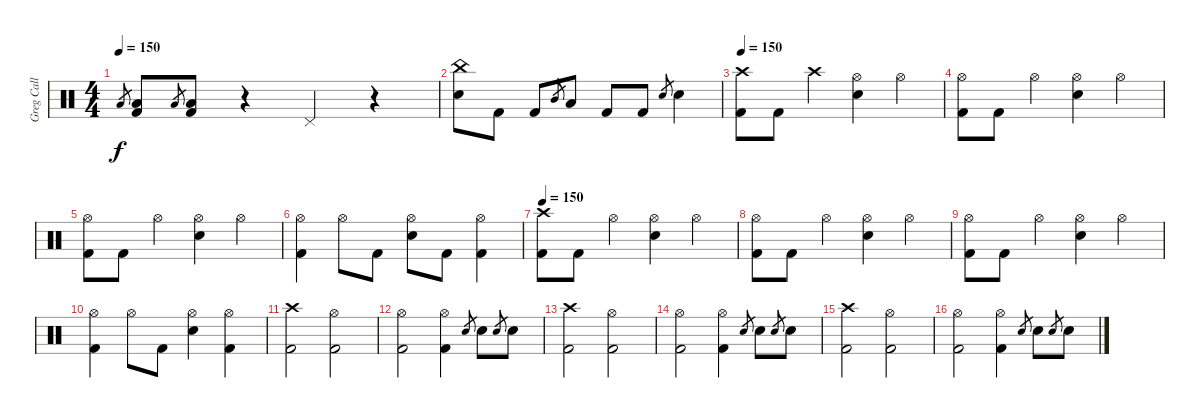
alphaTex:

\track ("Greg Call (Drums)" "Greg Call ") {instrument percussion}
\staff {score}
\articulation defaults
\ts (4 4)
\tempo 150
\clef neutral
\ks c "Low Floor Tom (hit)".8{gr dy f}
("Low Floor Tom (hit)" "Kick (hit) 2").8{volume 16} "Low Floor Tom (hit)".8{gr} ("Low Floor Tom (hit)" "Kick (hit) 2").8 r.4 "Pedal Hi-Hat (hit)".4 r.4 |
("China (hit)" "Snare (hit) 2").8 "Kick (hit) 2".8 "Kick (hit) 2".8 "Mid Tom (hit)".8{gr} "Low Tom (hit)".8 "Kick (hit) 2".8 "Kick (hit) 2".8 "Snare (hit) 2".8{gr} "Snare (hit) 2".4 |
\tempo 150
("Crash high (hit)" "Kick (hit) 2").8 "Kick (hit) 2".8 "Crash high (hit)".4 ("Hi-Hat (open)" "Snare (hit) 2").4 "Hi-Hat (open)".4 |
("Hi-Hat (open)" "Kick (hit) 2").8 "Kick (hit) 2".8 "Hi-Hat (open)".4 ("Hi-Hat (open)" "Snare (hit) 2").4 "Hi-Hat (open)".4 |
("Hi-Hat (open)" "Kick (hit) 2").8 "Kick (hit) 2".8 "Hi-Hat (open)".4 ("Hi-Hat (open)" "Snare (hit) 2").4 "Hi-Hat (open)".4 |
("Hi-Hat (open)" "Kick (hit) 2").4 "Hi-Hat (open)".8 "Kick (hit) 2".8 ("Hi-Hat (open)" "Snare (hit) 2").8 "Kick (hit) 2".8 ("Hi-Hat (open)" "Kick (hit) 2").4 |
\tempo 150
("Crash high (hit)" "Kick (hit) 2").8 "Kick (hit) 2".8 "Hi-Hat (open)".4 ("Hi-Hat (open)" "Snare (hit) 2").4 "Hi-Hat (open)".4 |
("Hi-Hat (open)" "Kick (hit) 2").8 "Kick (hit) 2".8 "Hi-Hat (open)".4 ("Hi-Hat (open)" "Snare (hit) 2").4 "Hi-Hat (open)".4 |
("Hi-Hat (open)" "Kick (hit) 2").8 "Kick (hit) 2".8 "Hi-Hat (open)".4 ("Hi-Hat (open)" "Snare (hit) 2").4 "Hi-Hat (open)".4 |
("Hi-Hat (open)" "Kick (hit) 2").4 "Hi-Hat (open)".8 "Kick (hit) 2".8 ("Hi-Hat (open)" "Snare (hit) 2").4 ("Hi-Hat (open)" "Kick (hit) 2").4 |
("Crash high (hit)" "Kick (hit) 2").2 ("Hi-Hat (open)" "Kick (hit) 2").2 |
("Hi-Hat (open)" "Kick (hit) 2").2 ("Hi-Hat (open)" "Kick (hit) 2").4 "Snare (hit) 2".8{gr} "Snare (hit) 2".8 "Snare (hit) 2".8{gr} "Snare (hit) 2".8 |
("Crash high (hit)" "Kick (hit) 2").2 ("Hi-Hat (open)" "Kick (hit) 2").2 |
("Hi-Hat (open)" "Kick (hit) 2").2 ("Hi-Hat (open)" "Kick (hit) 2").4 "Snare (hit) 2".8{gr} "Snare (hit) 2".8 "Snare (hit) 2".8{gr} "Snare (hit) 2".8 |
("Crash high (hit)" "Kick (hit) 2").2 ("Hi-Hat (open)" "Kick (hit) 2").2 |
("Hi-Hat (open)" "Kick (hit) 2").2 ("Hi-Hat (open)" "Kick (hit) 2").4 "Snare (hit) 2".8{gr} "Snare (hit) 2".8 "Snare (hit) 2".8{gr} "Snare (hit) 2".8
